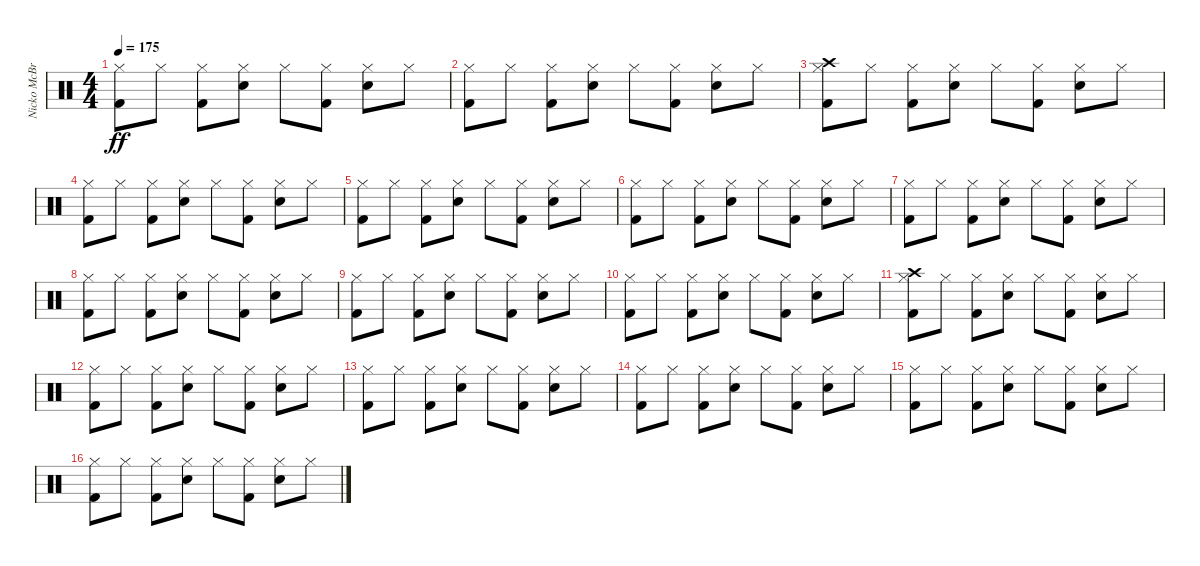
\track ("Nicko McBrain" "Nicko McBr") {instrument percussion}
\staff {score}
\articulation defaults
\ts (4 4)
\tempo 175
\clef neutral
\ks c
("Kick (hit) 2" "Hi-Hat (closed)").8{dy ff} "Hi-Hat (closed)".8 ("Kick (hit) 2" "Hi-Hat (closed)").8 ("Snare (hit) 2" "Hi-Hat (closed)").8 "Hi-Hat (closed)".8 ("Kick (hit) 2" "Hi-Hat (closed)").8 ("Snare (hit) 2" "Hi-Hat (closed)").8 "Hi-Hat (closed)".8 |
("Kick (hit) 2" "Hi-Hat (closed)").8 "Hi-Hat (closed)".8 ("Kick (hit) 2" "Hi-Hat (closed)").8 ("Snare (hit) 2" "Hi-Hat (closed)").8 "Hi-Hat (closed)".8 ("Kick (hit) 2" "Hi-Hat (closed)").8 ("Snare (hit) 2" "Hi-Hat (closed)").8 "Hi-Hat (closed)".8 |
("Kick (hit) 2" "Hi-Hat (closed)" "Crash high (hit)").8 "Hi-Hat (closed)".8 ("Kick (hit) 2" "Hi-Hat (closed)").8 ("Snare (hit) 2" "Hi-Hat (closed)").8 "Hi-Hat (closed)".8 ("Kick (hit) 2" "Hi-Hat (closed)").8 ("Snare (hit) 2" "Hi-Hat (closed)").8 "Hi-Hat (closed)".8 |
("Kick (hit) 2" "Hi-Hat (closed)").8 "Hi-Hat (closed)".8 ("Kick (hit) 2" "Hi-Hat (closed)").8 ("Snare (hit) 2" "Hi-Hat (closed)").8 "Hi-Hat (closed)".8 ("Kick (hit) 2" "Hi-Hat (closed)").8 ("Snare (hit) 2" "Hi-Hat (closed)").8 "Hi-Hat (closed)".8 |
("Kick (hit) 2" "Hi-Hat (closed)").8 "Hi-Hat (closed)".8 ("Kick (hit) 2" "Hi-Hat (closed)").8 ("Snare (hit) 2" "Hi-Hat (closed)").8 "Hi-Hat (closed)".8 ("Kick (hit) 2" "Hi-Hat (closed)").8 ("Snare (hit) 2" "Hi-Hat (closed)").8 "Hi-Hat (closed)".8 |
("Kick (hit) 2" "Hi-Hat (closed)").8 "Hi-Hat (closed)".8 ("Kick (hit) 2" "Hi-Hat (closed)").8 ("Snare (hit) 2" "Hi-Hat (closed)").8 "Hi-Hat (closed)".8 ("Kick (hit) 2" "Hi-Hat (closed)").8 ("Snare (hit) 2" "Hi-Hat (closed)").8 "Hi-Hat (closed)".8 |
("Kick (hit) 2" "Hi-Hat (closed)").8 "Hi-Hat (closed)".8 ("Kick (hit) 2" "Hi-Hat (closed)").8 ("Snare (hit) 2" "Hi-Hat (closed)").8 "Hi-Hat (closed)".8 ("Kick (hit) 2" "Hi-Hat (closed)").8 ("Snare (hit) 2" "Hi-Hat (closed)").8 "Hi-Hat (closed)".8 |
("Kick (hit) 2" "Hi-Hat (closed)").8 "Hi-Hat (closed)".8 ("Kick (hit) 2" "Hi-Hat (closed)").8 ("Snare (hit) 2" "Hi-Hat (closed)").8 "Hi-Hat (closed)".8 ("Kick (hit) 2" "Hi-Hat (closed)").8 ("Snare (hit) 2" "Hi-Hat (closed)").8 "Hi-Hat (closed)".8 |
("Kick (hit) 2" "Hi-Hat (closed)").8 "Hi-Hat (closed)".8 ("Kick (hit) 2" "Hi-Hat (closed)").8 ("Snare (hit) 2" "Hi-Hat (closed)").8 "Hi-Hat (closed)".8 ("Kick (hit) 2" "Hi-Hat (closed)").8 ("Snare (hit) 2" "Hi-Hat (closed)").8 "Hi-Hat (closed)".8 |
("Kick (hit) 2" "Hi-Hat (closed)").8 "Hi-Hat (closed)".8 ("Kick (hit) 2" "Hi-Hat (closed)").8 ("Snare (hit) 2" "Hi-Hat (closed)").8 "Hi-Hat (closed)".8 ("Kick (hit) 2" "Hi-Hat (closed)").8 ("Snare (hit) 2" "Hi-Hat (closed)").8 "Hi-Hat (closed)".8 |
("Kick (hit) 2" "Hi-Hat (closed)" "Crash high (hit)").8 "Hi-Hat (closed)".8 ("Kick (hit) 2" "Hi-Hat (closed)").8 ("Snare (hit) 2" "Hi-Hat (closed)").8 "Hi-Hat (closed)".8 ("Kick (hit) 2" "Hi-Hat (closed)").8 ("Snare (hit) 2" "Hi-Hat (closed)").8 "Hi-Hat (closed)".8 |
("Kick (hit) 2" "Hi-Hat (closed)").8 "Hi-Hat (closed)".8 ("Kick (hit) 2" "Hi-Hat (closed)").8 ("Snare (hit) 2" "Hi-Hat (closed)").8 "Hi-Hat (closed)".8 ("Kick (hit) 2" "Hi-Hat (closed)").8 ("Snare (hit) 2" "Hi-Hat (closed)").8 "Hi-Hat (closed)".8 |
("Kick (hit) 2" "Hi-Hat (closed)").8 "Hi-Hat (closed)".8 ("Kick (hit) 2" "Hi-Hat (closed)").8 ("Snare (hit) 2" "Hi-Hat (closed)").8 "Hi-Hat (closed)".8 ("Kick (hit) 2" "Hi-Hat (closed)").8 ("Snare (hit) 2" "Hi-Hat (closed)").8 "Hi-Hat (closed)".8 |
("Kick (hit) 2" "Hi-Hat (closed)").8 "Hi-Hat (closed)".8 ("Kick (hit) 2" "Hi-Hat (closed)").8 ("Snare (hit) 2" "Hi-Hat (closed)").8 "Hi-Hat (closed)".8 ("Kick (hit) 2" "Hi-Hat (closed)").8 ("Snare (hit) 2" "Hi-Hat (closed)").8 "Hi-Hat (closed)".8 |
("Kick (hit) 2" "Hi-Hat (closed)").8 "Hi-Hat (closed)".8 ("Kick (hit) 2" "Hi-Hat (closed)").8 ("Snare (hit) 2" "Hi-Hat (closed)").8 "Hi-Hat (closed)".8 ("Kick (hit) 2" "Hi-Hat (closed)").8 ("Snare (hit) 2" "Hi-Hat (closed)").8 "Hi-Hat (closed)".8 |
("Kick (hit) 2" "Hi-Hat (closed)").8 "Hi-Hat (closed)".8 ("Kick (hit) 2" "Hi-Hat (closed)").8 ("Snare (hit) 2" "Hi-Hat (closed)").8 "Hi-Hat (closed)".8 ("Kick (hit) 2" "Hi-Hat (closed)").8 ("Snare (hit) 2" "Hi-Hat (closed)").8 "Hi-Hat (closed)".8
